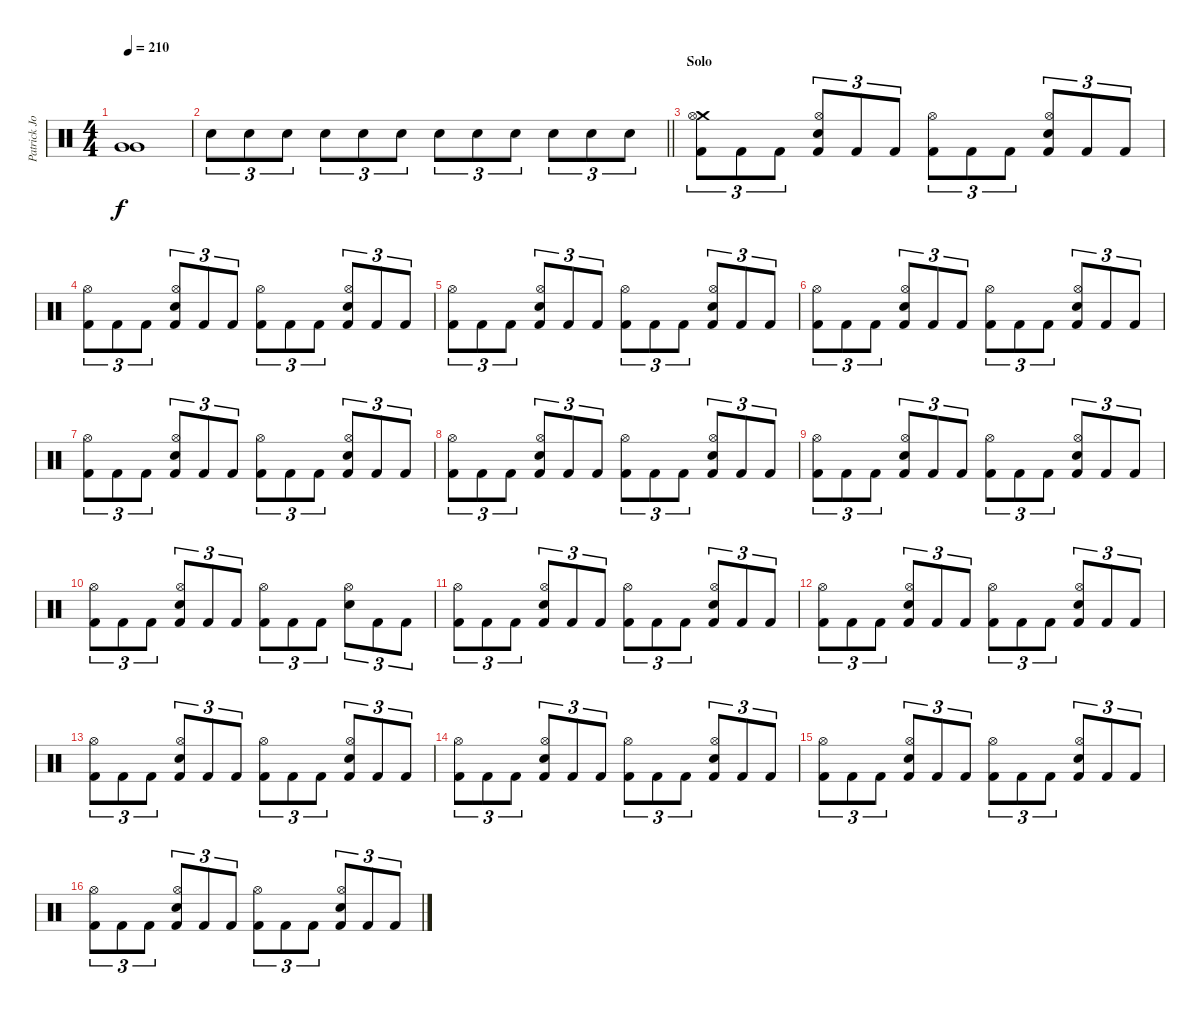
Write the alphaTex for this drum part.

\track ("Patrick Johansson" "Patrick Jo") {instrument percussion}
\staff {score}
\articulation defaults
\ts (4 4)
\tempo 210
\clef neutral
\ks c
("Very Low Tom (hit)" "Very Low Tom (hit)").1{dy f} |
\barLineRight lightlight "Snare (hit) 2".8{tu (3 2)} "Snare (hit) 2".8{tu (3 2)} "Snare (hit) 2".8{tu (3 2)} "Snare (hit) 2".8{tu (3 2)} "Snare (hit) 2".8{tu (3 2)} "Snare (hit) 2".8{tu (3 2)} "Snare (hit) 2".8{tu (3 2)} "Snare (hit) 2".8{tu (3 2)} "Snare (hit) 2".8{tu (3 2)} "Snare (hit) 2".8{tu (3 2)} "Snare (hit) 2".8{tu (3 2)} "Snare (hit) 2".8{tu (3 2)}
|
\section ("" "Solo")
("Crash medium (hit)" "Hi-Hat (open)" "Kick (hit) 2").8{tu (3 2)} "Kick (hit) 2".8{tu (3 2)} "Kick (hit) 2".8{tu (3 2)} ("Hi-Hat (open)" "Snare (hit) 2" "Kick (hit) 2").8{tu (3 2)} "Kick (hit) 2".8{tu (3 2)} "Kick (hit) 2".8{tu (3 2)} ("Hi-Hat (open)" "Kick (hit) 2").8{tu (3 2)} "Kick (hit) 2".8{tu (3 2)} "Kick (hit) 2".8{tu (3 2)} ("Hi-Hat (open)" "Snare (hit) 2" "Kick (hit) 2").8{tu (3 2)} "Kick (hit) 2".8{tu (3 2)} "Kick (hit) 2".8{tu (3 2)} |
("Hi-Hat (open)" "Kick (hit) 2").8{tu (3 2)} "Kick (hit) 2".8{tu (3 2)} "Kick (hit) 2".8{tu (3 2)} ("Hi-Hat (open)" "Snare (hit) 2" "Kick (hit) 2").8{tu (3 2)} "Kick (hit) 2".8{tu (3 2)} "Kick (hit) 2".8{tu (3 2)} ("Hi-Hat (open)" "Kick (hit) 2").8{tu (3 2)} "Kick (hit) 2".8{tu (3 2)} "Kick (hit) 2".8{tu (3 2)} ("Hi-Hat (open)" "Snare (hit) 2" "Kick (hit) 2").8{tu (3 2)} "Kick (hit) 2".8{tu (3 2)} "Kick (hit) 2".8{tu (3 2)} |
("Hi-Hat (open)" "Kick (hit) 2").8{tu (3 2)} "Kick (hit) 2".8{tu (3 2)} "Kick (hit) 2".8{tu (3 2)} ("Hi-Hat (open)" "Snare (hit) 2" "Kick (hit) 2").8{tu (3 2)} "Kick (hit) 2".8{tu (3 2)} "Kick (hit) 2".8{tu (3 2)} ("Hi-Hat (open)" "Kick (hit) 2").8{tu (3 2)} "Kick (hit) 2".8{tu (3 2)} "Kick (hit) 2".8{tu (3 2)} ("Hi-Hat (open)" "Snare (hit) 2" "Kick (hit) 2").8{tu (3 2)} "Kick (hit) 2".8{tu (3 2)} "Kick (hit) 2".8{tu (3 2)} |
("Hi-Hat (open)" "Kick (hit) 2").8{tu (3 2)} "Kick (hit) 2".8{tu (3 2)} "Kick (hit) 2".8{tu (3 2)} ("Hi-Hat (open)" "Snare (hit) 2" "Kick (hit) 2").8{tu (3 2)} "Kick (hit) 2".8{tu (3 2)} "Kick (hit) 2".8{tu (3 2)} ("Hi-Hat (open)" "Kick (hit) 2").8{tu (3 2)} "Kick (hit) 2".8{tu (3 2)} "Kick (hit) 2".8{tu (3 2)} ("Hi-Hat (open)" "Snare (hit) 2" "Kick (hit) 2").8{tu (3 2)} "Kick (hit) 2".8{tu (3 2)} "Kick (hit) 2".8{tu (3 2)} |
("Hi-Hat (open)" "Kick (hit) 2").8{tu (3 2)} "Kick (hit) 2".8{tu (3 2)} "Kick (hit) 2".8{tu (3 2)} ("Hi-Hat (open)" "Snare (hit) 2" "Kick (hit) 2").8{tu (3 2)} "Kick (hit) 2".8{tu (3 2)} "Kick (hit) 2".8{tu (3 2)} ("Hi-Hat (open)" "Kick (hit) 2").8{tu (3 2)} "Kick (hit) 2".8{tu (3 2)} "Kick (hit) 2".8{tu (3 2)} ("Hi-Hat (open)" "Snare (hit) 2" "Kick (hit) 2").8{tu (3 2)} "Kick (hit) 2".8{tu (3 2)} "Kick (hit) 2".8{tu (3 2)} |
("Hi-Hat (open)" "Kick (hit) 2").8{tu (3 2)} "Kick (hit) 2".8{tu (3 2)} "Kick (hit) 2".8{tu (3 2)} ("Hi-Hat (open)" "Snare (hit) 2" "Kick (hit) 2").8{tu (3 2)} "Kick (hit) 2".8{tu (3 2)} "Kick (hit) 2".8{tu (3 2)} ("Hi-Hat (open)" "Kick (hit) 2").8{tu (3 2)} "Kick (hit) 2".8{tu (3 2)} "Kick (hit) 2".8{tu (3 2)} ("Hi-Hat (open)" "Snare (hit) 2" "Kick (hit) 2").8{tu (3 2)} "Kick (hit) 2".8{tu (3 2)} "Kick (hit) 2".8{tu (3 2)} |
("Hi-Hat (open)" "Kick (hit) 2").8{tu (3 2)} "Kick (hit) 2".8{tu (3 2)} "Kick (hit) 2".8{tu (3 2)} ("Hi-Hat (open)" "Snare (hit) 2" "Kick (hit) 2").8{tu (3 2)} "Kick (hit) 2".8{tu (3 2)} "Kick (hit) 2".8{tu (3 2)} ("Hi-Hat (open)" "Kick (hit) 2").8{tu (3 2)} "Kick (hit) 2".8{tu (3 2)} "Kick (hit) 2".8{tu (3 2)} ("Hi-Hat (open)" "Snare (hit) 2" "Kick (hit) 2").8{tu (3 2)} "Kick (hit) 2".8{tu (3 2)} "Kick (hit) 2".8{tu (3 2)} |
("Hi-Hat (open)" "Kick (hit) 2").8{tu (3 2)} "Kick (hit) 2".8{tu (3 2)} "Kick (hit) 2".8{tu (3 2)} ("Hi-Hat (open)" "Snare (hit) 2" "Kick (hit) 2").8{tu (3 2)} "Kick (hit) 2".8{tu (3 2)} "Kick (hit) 2".8{tu (3 2)} ("Hi-Hat (open)" "Kick (hit) 2").8{tu (3 2)} "Kick (hit) 2".8{tu (3 2)} "Kick (hit) 2".8{tu (3 2)} ("Hi-Hat (open)" "Snare (hit) 2").8{tu (3 2)} "Kick (hit) 2".8{tu (3 2)} "Kick (hit) 2".8{tu (3 2)} |
("Hi-Hat (open)" "Kick (hit) 2").8{tu (3 2)} "Kick (hit) 2".8{tu (3 2)} "Kick (hit) 2".8{tu (3 2)} ("Hi-Hat (open)" "Snare (hit) 2" "Kick (hit) 2").8{tu (3 2)} "Kick (hit) 2".8{tu (3 2)} "Kick (hit) 2".8{tu (3 2)} ("Hi-Hat (open)" "Kick (hit) 2").8{tu (3 2)} "Kick (hit) 2".8{tu (3 2)} "Kick (hit) 2".8{tu (3 2)} ("Hi-Hat (open)" "Snare (hit) 2" "Kick (hit) 2").8{tu (3 2)} "Kick (hit) 2".8{tu (3 2)} "Kick (hit) 2".8{tu (3 2)} |
("Hi-Hat (open)" "Kick (hit) 2").8{tu (3 2)} "Kick (hit) 2".8{tu (3 2)} "Kick (hit) 2".8{tu (3 2)} ("Hi-Hat (open)" "Snare (hit) 2" "Kick (hit) 2").8{tu (3 2)} "Kick (hit) 2".8{tu (3 2)} "Kick (hit) 2".8{tu (3 2)} ("Hi-Hat (open)" "Kick (hit) 2").8{tu (3 2)} "Kick (hit) 2".8{tu (3 2)} "Kick (hit) 2".8{tu (3 2)} ("Hi-Hat (open)" "Snare (hit) 2" "Kick (hit) 2").8{tu (3 2)} "Kick (hit) 2".8{tu (3 2)} "Kick (hit) 2".8{tu (3 2)} |
("Hi-Hat (open)" "Kick (hit) 2").8{tu (3 2)} "Kick (hit) 2".8{tu (3 2)} "Kick (hit) 2".8{tu (3 2)} ("Hi-Hat (open)" "Snare (hit) 2" "Kick (hit) 2").8{tu (3 2)} "Kick (hit) 2".8{tu (3 2)} "Kick (hit) 2".8{tu (3 2)} ("Hi-Hat (open)" "Kick (hit) 2").8{tu (3 2)} "Kick (hit) 2".8{tu (3 2)} "Kick (hit) 2".8{tu (3 2)} ("Hi-Hat (open)" "Snare (hit) 2" "Kick (hit) 2").8{tu (3 2)} "Kick (hit) 2".8{tu (3 2)} "Kick (hit) 2".8{tu (3 2)} |
("Hi-Hat (open)" "Kick (hit) 2").8{tu (3 2)} "Kick (hit) 2".8{tu (3 2)} "Kick (hit) 2".8{tu (3 2)} ("Hi-Hat (open)" "Snare (hit) 2" "Kick (hit) 2").8{tu (3 2)} "Kick (hit) 2".8{tu (3 2)} "Kick (hit) 2".8{tu (3 2)} ("Hi-Hat (open)" "Kick (hit) 2").8{tu (3 2)} "Kick (hit) 2".8{tu (3 2)} "Kick (hit) 2".8{tu (3 2)} ("Hi-Hat (open)" "Snare (hit) 2" "Kick (hit) 2").8{tu (3 2)} "Kick (hit) 2".8{tu (3 2)} "Kick (hit) 2".8{tu (3 2)} |
("Hi-Hat (open)" "Kick (hit) 2").8{tu (3 2)} "Kick (hit) 2".8{tu (3 2)} "Kick (hit) 2".8{tu (3 2)} ("Hi-Hat (open)" "Snare (hit) 2" "Kick (hit) 2").8{tu (3 2)} "Kick (hit) 2".8{tu (3 2)} "Kick (hit) 2".8{tu (3 2)} ("Hi-Hat (open)" "Kick (hit) 2").8{tu (3 2)} "Kick (hit) 2".8{tu (3 2)} "Kick (hit) 2".8{tu (3 2)} ("Hi-Hat (open)" "Snare (hit) 2" "Kick (hit) 2").8{tu (3 2)} "Kick (hit) 2".8{tu (3 2)} "Kick (hit) 2".8{tu (3 2)} |
("Hi-Hat (open)" "Kick (hit) 2").8{tu (3 2)} "Kick (hit) 2".8{tu (3 2)} "Kick (hit) 2".8{tu (3 2)} ("Hi-Hat (open)" "Snare (hit) 2" "Kick (hit) 2").8{tu (3 2)} "Kick (hit) 2".8{tu (3 2)} "Kick (hit) 2".8{tu (3 2)} ("Hi-Hat (open)" "Kick (hit) 2").8{tu (3 2)} "Kick (hit) 2".8{tu (3 2)} "Kick (hit) 2".8{tu (3 2)} ("Hi-Hat (open)" "Snare (hit) 2" "Kick (hit) 2").8{tu (3 2)} "Kick (hit) 2".8{tu (3 2)} "Kick (hit) 2".8{tu (3 2)}
